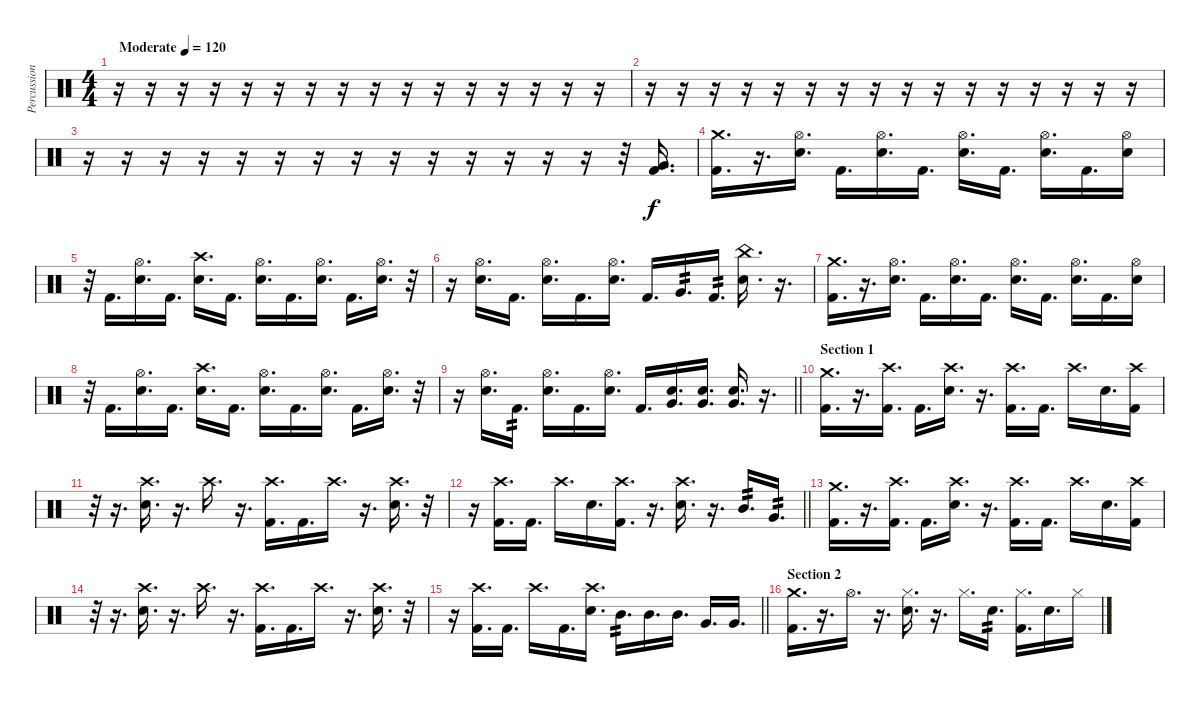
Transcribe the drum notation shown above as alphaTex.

\track ("Percussion" "Percussion") {instrument percussion}
\staff
\articulation defaults
\ts (4 4)
\tempo (120 "Moderate")
\clef neutral
\ks c
r.16{dy f} r.16 r.16 r.16 r.16 r.16 r.16 r.16 r.16 r.16 r.16 r.16 r.16 r.16 r.16 r.16 |
r.16 r.16 r.16 r.16 r.16 r.16 r.16 r.16 r.16 r.16 r.16 r.16 r.16 r.16 r.16 r.16 |
r.16 r.16 r.16 r.16 r.16 r.16 r.16 r.16 r.16 r.16 r.16 r.16 r.16 r.16 r.32 ("Very Low Tom (hit)" "Kick (hit) 2").16{d} |
("Crash medium (hit)" "Kick (hit) 2").16{d} r.16{d} ("Hi-Hat (open)" "Electric Snare (hit)").16{d} "Kick (hit) 2".16{d} ("Hi-Hat (open)" "Electric Snare (hit)").16{d} "Kick (hit) 2".16{d} ("Hi-Hat (open)" "Electric Snare (hit)").16{d} "Kick (hit) 2".16{d} ("Hi-Hat (open)" "Electric Snare (hit)").16{d} "Kick (hit) 2".16{d} ("Hi-Hat (open)" "Electric Snare (hit)").16 |
r.32 "Kick (hit) 2".16{d} ("Electric Snare (hit)" "Hi-Hat (open)").16{d} "Kick (hit) 2".16{d} ("Electric Snare (hit)" "Crash high (hit)").16{d} "Kick (hit) 2".16{d} ("Electric Snare (hit)" "Hi-Hat (open)").16{d} "Kick (hit) 2".16{d} ("Electric Snare (hit)" "Hi-Hat (open)").16{d} "Kick (hit) 2".16{d} ("Electric Snare (hit)" "Hi-Hat (open)").16{d} r.32 |
r.16 ("Electric Snare (hit)" "Hi-Hat (open)").16{d} "Kick (hit) 2".16{d} ("Electric Snare (hit)" "Hi-Hat (open)").16{d} "Kick (hit) 2".16{d} ("Electric Snare (hit)" "Hi-Hat (open)").16{d} "Kick (hit) 2".16{d} "Very Low Tom (hit)".16{d tp 2} "Kick (hit) 2".16{d tp 2} ("China (hit)" "Electric Snare (hit)").16{d} r.16{d} |
("Crash medium (hit)" "Kick (hit) 2").16{d} r.16{d} ("Hi-Hat (open)" "Electric Snare (hit)").16{d} "Kick (hit) 2".16{d} ("Hi-Hat (open)" "Electric Snare (hit)").16{d} "Kick (hit) 2".16{d} ("Hi-Hat (open)" "Electric Snare (hit)").16{d} "Kick (hit) 2".16{d} ("Hi-Hat (open)" "Electric Snare (hit)").16{d} "Kick (hit) 2".16{d} ("Hi-Hat (open)" "Electric Snare (hit)").16 |
r.32 "Kick (hit) 2".16{d} ("Electric Snare (hit)" "Hi-Hat (open)").16{d} "Kick (hit) 2".16{d} ("Electric Snare (hit)" "Crash high (hit)").16{d} "Kick (hit) 2".16{d} ("Electric Snare (hit)" "Hi-Hat (open)").16{d} "Kick (hit) 2".16{d} ("Electric Snare (hit)" "Hi-Hat (open)").16{d} "Kick (hit) 2".16{d} ("Electric Snare (hit)" "Hi-Hat (open)").16{d} r.32 |
\barLineRight lightlight
r.16 ("Electric Snare (hit)" "Hi-Hat (open)").16{d} "Kick (hit) 2".16{d tp 2} ("Electric Snare (hit)" "Hi-Hat (open)").16{d} "Kick (hit) 2".16{d} ("Electric Snare (hit)" "Hi-Hat (open)").16{d} "Kick (hit) 2".16{d} ("Very Low Tom (hit)" "Electric Snare (hit)").16{d} ("Very Low Tom (hit)" "Electric Snare (hit)").16{d} ("Very Low Tom (hit)" "Electric Snare (hit)").16{d} r.16{d} |
\section ("" "Section 1")
("Crash medium (hit)" "Kick (hit) 2").16{d} r.16{d} ("Crash high (hit)" "Kick (hit) 2").16{d} "Kick (hit) 2".16{d} ("Crash high (hit)" "Electric Snare (hit)").16{d} r.16{d} ("Crash high (hit)" "Kick (hit) 2").16{d} "Kick (hit) 2".16{d} "Crash high (hit)".16{d} "Electric Snare (hit)".16{d} ("Crash high (hit)" "Kick (hit) 2").16 |
r.32 r.16{d} ("Crash high (hit)" "Electric Snare (hit)").16{d} r.16{d} "Crash high (hit)".16{d} r.16{d} ("Crash high (hit)" "Kick (hit) 2").16{d} "Kick (hit) 2".16{d} "Crash high (hit)".16{d} r.16{d} ("Crash high (hit)" "Electric Snare (hit)").16{d} r.32 |
\barLineRight lightlight
r.16 ("Crash high (hit)" "Kick (hit) 2").16{d} "Kick (hit) 2".16{d} "Crash high (hit)".16{d} "Electric Snare (hit)".16{d} ("Crash high (hit)" "Kick (hit) 2").16{d} r.16{d} ("Crash high (hit)" "Electric Snare (hit)").16{d} r.16{d} "Mid Tom (hit)".16{d tp 2} "Very Low Tom (hit)".16{d tp 2} |
("Crash medium (hit)" "Kick (hit) 2").16{d} r.16{d} ("Crash high (hit)" "Kick (hit) 2").16{d} "Kick (hit) 2".16{d} ("Crash high (hit)" "Electric Snare (hit)").16{d} r.16{d} ("Crash high (hit)" "Kick (hit) 2").16{d} "Kick (hit) 2".16{d} "Crash high (hit)".16{d} "Electric Snare (hit)".16{d} ("Crash high (hit)" "Kick (hit) 2").16 |
r.32 r.16{d} ("Crash high (hit)" "Electric Snare (hit)").16{d} r.16{d} "Crash high (hit)".16{d} r.16{d} ("Crash high (hit)" "Kick (hit) 2").16{d} "Kick (hit) 2".16{d} "Crash high (hit)".16{d} r.16{d} ("Crash high (hit)" "Electric Snare (hit)").16{d} r.32 |
\barLineRight lightlight
r.16 ("Crash high (hit)" "Kick (hit) 2").16{d} "Kick (hit) 2".16{d} "Crash high (hit)".16{d} "Kick (hit) 2".16{d} ("Crash high (hit)" "Electric Snare (hit)").16{d} "Mid Tom (hit)".16{d tp 2} "Mid Tom (hit)".16{d} "Mid Tom (hit)".16{d} "Very Low Tom (hit)".16{d} "Very Low Tom (hit)".16{d} |
\section ("" "Section 2")
("Crash medium (hit)" "Kick (hit) 2").16{d} r.16{d} "Hi-Hat (open)".16{d} r.16{d} ("Hi-Hat (closed)" "Electric Snare (hit)").16{d} r.16{d} "Hi-Hat (closed)".16{d} "Electric Snare (hit)".16{d tp 2} ("Hi-Hat (closed)" "Kick (hit) 2").16{d} "Electric Snare (hit)".16{d} "Hi-Hat (closed)".16
